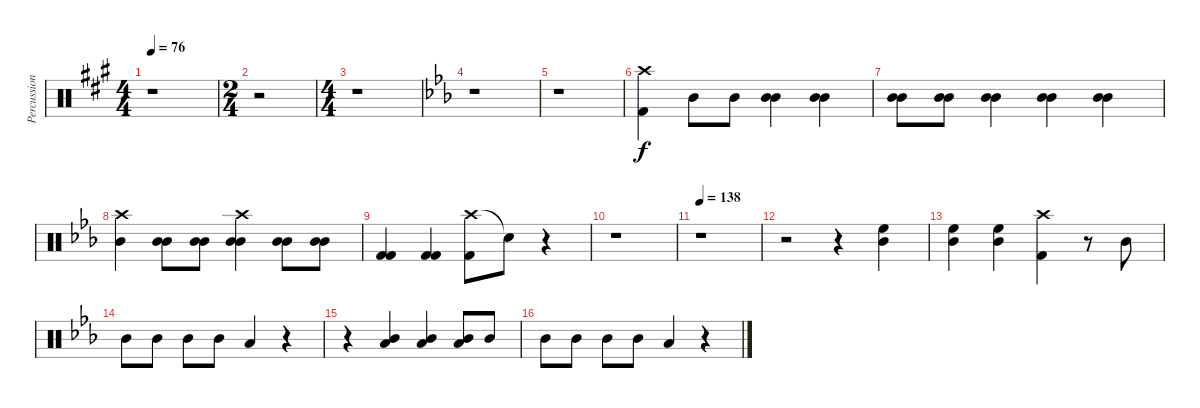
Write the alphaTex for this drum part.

\track ("Percussion" "Percussion") {instrument percussion}
\staff {score}
\articulation defaults
\ts (4 4)
\tempo 76
\clef neutral
\ks a
r.1{dy f} |
\ts (2 4)
r.2 |
\ts (4 4)
r.1 |
\ks eb
r.1 |
r.1 |
("Crash high (hit)" "Kick (hit) 2").4 "Mid Tom (hit)".8 "Mid Tom (hit)".8 ("Mid Tom (hit)" "Mid Tom (hit)").4 ("Mid Tom (hit)" "Mid Tom (hit)").4 |
("Mid Tom (hit)" "Mid Tom (hit)").8 ("Mid Tom (hit)" "Mid Tom (hit)").8 ("Mid Tom (hit)" "Mid Tom (hit)").4 ("Mid Tom (hit)" "Mid Tom (hit)").4 ("Mid Tom (hit)" "Mid Tom (hit)").4 |
("Crash high (hit)" "Mid Tom (hit)").4 ("Mid Tom (hit)" "Mid Tom (hit)").8 ("Mid Tom (hit)" "Mid Tom (hit)").8 ("Crash high (hit)" "Mid Tom (hit)" "Mid Tom (hit)").4 ("Mid Tom (hit)" "Mid Tom (hit)").8 ("Mid Tom (hit)" "Mid Tom (hit)").8 |
("Kick (hit) 2" "Kick (hit) 2").4 ("Kick (hit) 2" "Kick (hit) 2").4 ("Crash high (hit)" "Kick (hit) 2").8 "Snare (hit)"{t}.8 r.4 |
r.1 |
\tempo 138
r.1 |
r.2 r.4 ("High Floor Tom (hit)" "Mid Tom (hit)").4 |
("High Floor Tom (hit)" "Mid Tom (hit)").4 ("High Floor Tom (hit)" "Mid Tom (hit)").4 ("Crash high (hit)" "Kick (hit) 2").4 r.8 "Mid Tom (hit)".8 |
"Mid Tom (hit)".8 "Mid Tom (hit)".8 "Mid Tom (hit)".8 "Mid Tom (hit)".8 "Low Tom (hit)".4 r.4 |
r.4 ("Mid Tom (hit)" "Low Tom (hit)").4 ("Mid Tom (hit)" "Low Tom (hit)").4 ("Mid Tom (hit)" "Low Tom (hit)").8 "Mid Tom (hit)".8 |
"Mid Tom (hit)".8 "Mid Tom (hit)".8 "Mid Tom (hit)".8 "Mid Tom (hit)".8 "Low Tom (hit)".4 r.4
